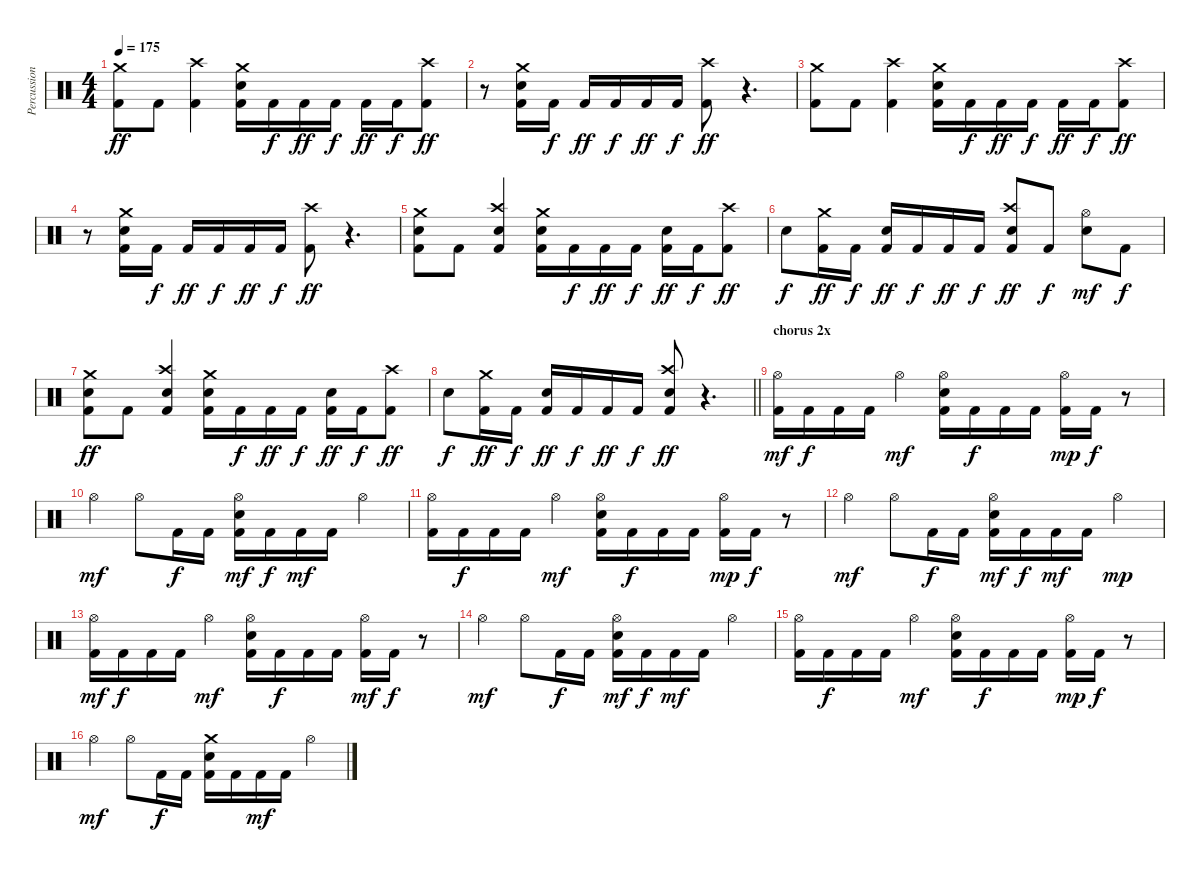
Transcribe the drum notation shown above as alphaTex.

\track ("Percussion" "Percussion") {instrument percussion}
\staff {score}
\articulation defaults
\ts (4 4)
\tempo 175
\clef neutral
\ks c
("Crash medium (hit)" "Kick (hit) 2").8{dy ff} "Kick (hit) 2".8 ("Crash high (hit)" "Kick (hit) 2").4 ("Crash medium (hit)" "Electric Snare (hit)" "Kick (hit) 2").16 "Kick (hit) 2".16{dy f} "Kick (hit) 2".16{dy ff} "Kick (hit) 2".16{dy f} "Kick (hit) 2".16{dy ff} "Kick (hit) 2".16{dy f} ("Crash high (hit)" "Kick (hit) 2").8{dy ff} |
r.8 ("Crash medium (hit)" "Electric Snare (hit)" "Kick (hit) 2").16 "Kick (hit) 2".16{dy f} "Kick (hit) 2".16{dy ff} "Kick (hit) 2".16{dy f} "Kick (hit) 2".16{dy ff} "Kick (hit) 2".16{dy f} ("Crash high (hit)" "Kick (hit) 2").8{dy ff} r.4{d} |
("Crash medium (hit)" "Kick (hit) 2").8 "Kick (hit) 2".8 ("Crash high (hit)" "Kick (hit) 2").4 ("Crash medium (hit)" "Electric Snare (hit)" "Kick (hit) 2").16 "Kick (hit) 2".16{dy f} "Kick (hit) 2".16{dy ff} "Kick (hit) 2".16{dy f} "Kick (hit) 2".16{dy ff} "Kick (hit) 2".16{dy f} ("Crash high (hit)" "Kick (hit) 2").8{dy ff} |
r.8 ("Crash medium (hit)" "Electric Snare (hit)" "Kick (hit) 2").16 "Kick (hit) 2".16{dy f} "Kick (hit) 2".16{dy ff} "Kick (hit) 2".16{dy f} "Kick (hit) 2".16{dy ff} "Kick (hit) 2".16{dy f} ("Crash high (hit)" "Kick (hit) 2").8{dy ff} r.4{d} |
("Crash medium (hit)" "Electric Snare (hit)" "Kick (hit) 2").8 "Kick (hit) 2".8 ("Crash high (hit)" "Electric Snare (hit)" "Kick (hit) 2").4 ("Crash medium (hit)" "Electric Snare (hit)" "Kick (hit) 2").16 "Kick (hit) 2".16{dy f} "Kick (hit) 2".16{dy ff} "Kick (hit) 2".16{dy f} ("Electric Snare (hit)" "Kick (hit) 2").16{dy ff} "Kick (hit) 2".16{dy f} ("Crash high (hit)" "Kick (hit) 2").8{dy ff} |
"Electric Snare (hit)".8{dy f} ("Crash medium (hit)" "Kick (hit) 2").16{dy ff} "Kick (hit) 2".16{dy f} ("Electric Snare (hit)" "Kick (hit) 2").16{dy ff} "Kick (hit) 2".16{dy f} "Kick (hit) 2".16{dy ff} "Kick (hit) 2".16{dy f} ("Crash high (hit)" "Electric Snare (hit)" "Kick (hit) 2").8{dy ff} "Kick (hit) 2".8{dy f} ("Hi-Hat (open)" "Electric Snare (hit)").8{dy mf} "Kick (hit) 2".8{dy f} |
("Crash medium (hit)" "Electric Snare (hit)" "Kick (hit) 2").8{dy ff} "Kick (hit) 2".8 ("Crash high (hit)" "Electric Snare (hit)" "Kick (hit) 2").4 ("Crash medium (hit)" "Electric Snare (hit)" "Kick (hit) 2").16 "Kick (hit) 2".16{dy f} "Kick (hit) 2".16{dy ff} "Kick (hit) 2".16{dy f} ("Electric Snare (hit)" "Kick (hit) 2").16{dy ff} "Kick (hit) 2".16{dy f} ("Crash high (hit)" "Kick (hit) 2").8{dy ff} |
\barLineRight lightlight "Electric Snare (hit)".8{dy f}
("Crash medium (hit)" "Kick (hit) 2").16{dy ff} "Kick (hit) 2".16{dy f} ("Electric Snare (hit)" "Kick (hit) 2").16{dy ff} "Kick (hit) 2".16{dy f} "Kick (hit) 2".16{dy ff} "Kick (hit) 2".16{dy f} ("Crash high (hit)" "Electric Snare (hit)" "Kick (hit) 2").8{dy ff} r.4{d} |
\section ("" "chorus 2x")
("Hi-Hat (open)" "Kick (hit) 2").16{dy mf} "Kick (hit) 2".16{dy f} "Kick (hit) 2".16 "Kick (hit) 2".16 "Hi-Hat (open)".4{dy mf} ("Electric Snare (hit)" "Hi-Hat (open)" "Kick (hit) 2").16 "Kick (hit) 2".16{dy f} "Kick (hit) 2".16 "Kick (hit) 2".16 ("Hi-Hat (open)" "Kick (hit) 2").16{dy mp} "Kick (hit) 2".16{dy f} r.8 |
"Hi-Hat (open)".4{dy mf} "Hi-Hat (open)".8 "Kick (hit) 2".16{dy f} "Kick (hit) 2".16 ("Electric Snare (hit)" "Hi-Hat (open)" "Kick (hit) 2").16{dy mf} "Kick (hit) 2".16{dy f} "Kick (hit) 2".16{dy mf} "Kick (hit) 2".16 "Hi-Hat (open)".4 |
("Hi-Hat (open)" "Kick (hit) 2").16 "Kick (hit) 2".16{dy f} "Kick (hit) 2".16 "Kick (hit) 2".16 "Hi-Hat (open)".4{dy mf} ("Electric Snare (hit)" "Hi-Hat (open)" "Kick (hit) 2").16 "Kick (hit) 2".16{dy f} "Kick (hit) 2".16 "Kick (hit) 2".16 ("Hi-Hat (open)" "Kick (hit) 2").16{dy mp} "Kick (hit) 2".16{dy f} r.8 |
"Hi-Hat (open)".4{dy mf} "Hi-Hat (open)".8 "Kick (hit) 2".16{dy f} "Kick (hit) 2".16 ("Electric Snare (hit)" "Hi-Hat (open)" "Kick (hit) 2").16{dy mf} "Kick (hit) 2".16{dy f} "Kick (hit) 2".16{dy mf} "Kick (hit) 2".16 "Hi-Hat (open)".4{dy mp} |
("Hi-Hat (open)" "Kick (hit) 2").16{dy mf} "Kick (hit) 2".16{dy f} "Kick (hit) 2".16 "Kick (hit) 2".16 "Hi-Hat (open)".4{dy mf} ("Electric Snare (hit)" "Hi-Hat (open)" "Kick (hit) 2").16 "Kick (hit) 2".16{dy f} "Kick (hit) 2".16 "Kick (hit) 2".16 ("Hi-Hat (open)" "Kick (hit) 2").16{dy mf} "Kick (hit) 2".16{dy f} r.8 |
"Hi-Hat (open)".4{dy mf} "Hi-Hat (open)".8 "Kick (hit) 2".16{dy f} "Kick (hit) 2".16 ("Electric Snare (hit)" "Hi-Hat (open)" "Kick (hit) 2").16{dy mf} "Kick (hit) 2".16{dy f} "Kick (hit) 2".16{dy mf} "Kick (hit) 2".16 "Hi-Hat (open)".4 |
("Hi-Hat (open)" "Kick (hit) 2").16 "Kick (hit) 2".16{dy f} "Kick (hit) 2".16 "Kick (hit) 2".16 "Hi-Hat (open)".4{dy mf} ("Electric Snare (hit)" "Hi-Hat (open)" "Kick (hit) 2").16 "Kick (hit) 2".16{dy f} "Kick (hit) 2".16 "Kick (hit) 2".16 ("Hi-Hat (open)" "Kick (hit) 2").16{dy mp} "Kick (hit) 2".16{dy f} r.8 |
"Hi-Hat (open)".4{dy mf} "Hi-Hat (open)".8 "Kick (hit) 2".16{dy f} "Kick (hit) 2".16 ("Electric Snare (hit)" "Crash medium (hit)" "Kick (hit) 2").16 "Kick (hit) 2".16 "Kick (hit) 2".16{dy mf} "Kick (hit) 2".16 "Hi-Hat (open)".4
